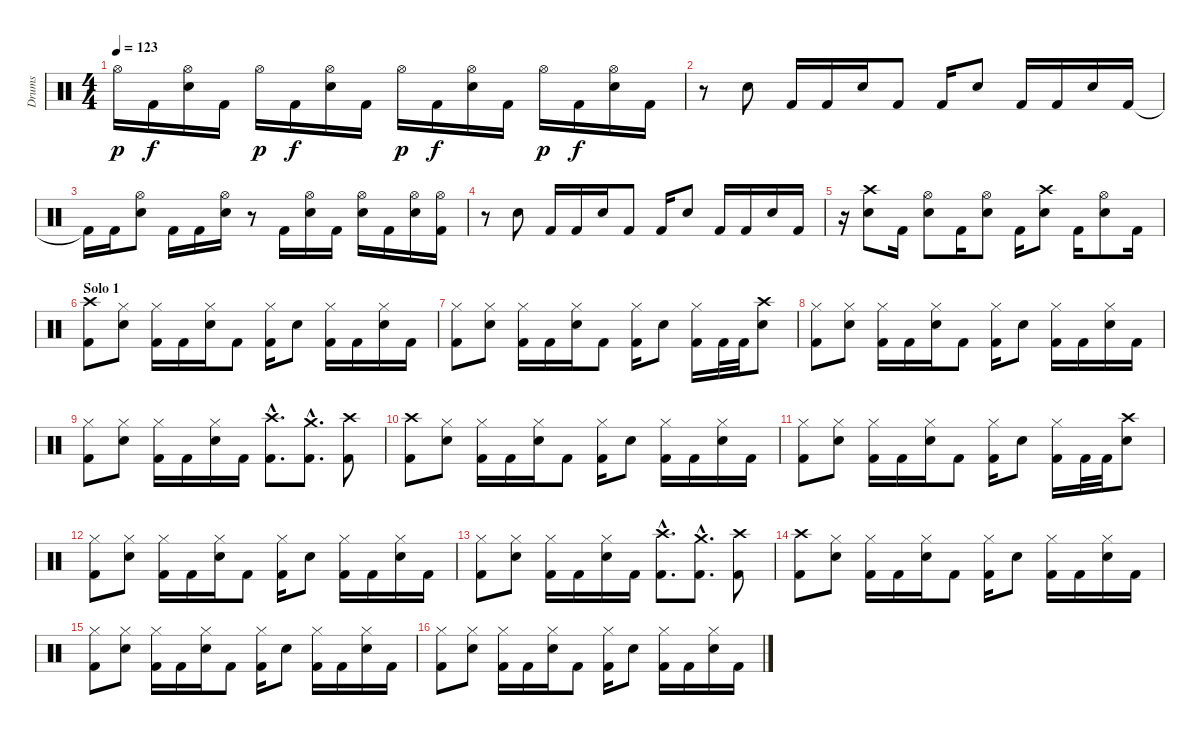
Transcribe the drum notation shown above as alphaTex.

\track ("Drums" "Drums") {instrument percussion}
\staff {score}
\articulation defaults
\ts (4 4)
\tempo 123
\clef neutral
\ks c "Hi-Hat (open)".16{dy p} "Kick (hit) 2".16{dy f}
("Hi-Hat (open)" "Snare (hit) 2").16 "Kick (hit) 2".16 "Hi-Hat (open)".16{dy p} "Kick (hit) 2".16{dy f} ("Hi-Hat (open)" "Snare (hit) 2").16 "Kick (hit) 2".16 "Hi-Hat (open)".16{dy p} "Kick (hit) 2".16{dy f} ("Hi-Hat (open)" "Snare (hit) 2").16 "Kick (hit) 2".16 "Hi-Hat (open)".16{dy p} "Kick (hit) 2".16{dy f} ("Hi-Hat (open)" "Snare (hit) 2").16 "Kick (hit) 2".16 |
r.8 "Snare (hit) 2".8 "Kick (hit) 2".16 "Kick (hit) 2".16 "Snare (hit) 2".16 "Kick (hit) 2".8 "Kick (hit) 2".16 "Snare (hit) 2".8 "Kick (hit) 2".16 "Kick (hit) 2".16 "Snare (hit) 2".16 "Kick (hit) 2".16 |
"Kick (hit) 2"{t}.16 "Kick (hit) 2".16 ("Hi-Hat (open)" "Snare (hit) 2").8 "Kick (hit) 2".16 "Kick (hit) 2".16 ("Hi-Hat (open)" "Snare (hit) 2").16 r.8 "Kick (hit) 2".16 ("Hi-Hat (open)" "Snare (hit) 2").16 "Kick (hit) 2".16 ("Hi-Hat (open)" "Snare (hit) 2").16 "Kick (hit) 2".16 ("Hi-Hat (open)" "Snare (hit) 2").16 ("Hi-Hat (open)" "Kick (hit) 2").16 |
r.8 "Snare (hit) 2".8 "Kick (hit) 2".16 "Kick (hit) 2".16 "Snare (hit) 2".16 "Kick (hit) 2".8 "Kick (hit) 2".16 "Snare (hit) 2".8 "Kick (hit) 2".16 "Kick (hit) 2".16 "Snare (hit) 2".16 "Kick (hit) 2".16 |
r.16 ("Crash high (hit)" "Snare (hit) 2").8 "Kick (hit) 2".16 ("Hi-Hat (open)" "Snare (hit) 2").8 "Kick (hit) 2".16 ("Hi-Hat (open)" "Snare (hit) 2").8 "Kick (hit) 2".16 ("Crash high (hit)" "Snare (hit) 2").8 "Kick (hit) 2".16 ("Hi-Hat (open)" "Snare (hit) 2").8 "Kick (hit) 2".16 |
\section ("" "Solo 1")
("Crash high (hit)" "Kick (hit) 2").8 ("Hi-Hat (closed)" "Snare (hit) 2").8 ("Hi-Hat (closed)" "Kick (hit) 2").16 "Kick (hit) 2".16 ("Hi-Hat (closed)" "Snare (hit) 2").16 "Kick (hit) 2".8 ("Hi-Hat (closed)" "Kick (hit) 2").16 "Snare (hit) 2".8 ("Hi-Hat (closed)" "Kick (hit) 2").16 "Kick (hit) 2".16 ("Hi-Hat (closed)" "Snare (hit) 2").16 "Kick (hit) 2".16 |
("Hi-Hat (closed)" "Kick (hit) 2").8 ("Hi-Hat (closed)" "Snare (hit) 2").8 ("Hi-Hat (closed)" "Kick (hit) 2").16 "Kick (hit) 2".16 ("Hi-Hat (closed)" "Snare (hit) 2").16 "Kick (hit) 2".8 ("Hi-Hat (closed)" "Kick (hit) 2").16 "Snare (hit) 2".8 ("Hi-Hat (closed)" "Kick (hit) 2").16 "Kick (hit) 2".32 "Kick (hit) 2".32 ("Crash high (hit)" "Snare (hit) 2").8 |
("Hi-Hat (closed)" "Kick (hit) 2").8 ("Hi-Hat (closed)" "Snare (hit) 2").8 ("Hi-Hat (closed)" "Kick (hit) 2").16 "Kick (hit) 2".16 ("Hi-Hat (closed)" "Snare (hit) 2").16 "Kick (hit) 2".8 ("Hi-Hat (closed)" "Kick (hit) 2").16 "Snare (hit) 2".8 ("Hi-Hat (closed)" "Kick (hit) 2").16 "Kick (hit) 2".16 ("Hi-Hat (closed)" "Snare (hit) 2").16 "Kick (hit) 2".16 |
("Hi-Hat (closed)" "Kick (hit) 2").8 ("Hi-Hat (closed)" "Snare (hit) 2").8 ("Hi-Hat (closed)" "Kick (hit) 2").16 "Kick (hit) 2".16 ("Hi-Hat (closed)" "Snare (hit) 2").16 "Kick (hit) 2".16 ("Crash high (hit)"{hac} "Kick (hit) 2"{hac}).8{d} ("Crash medium (hit)"{hac} "Kick (hit) 2"{hac}).8{d} ("Crash high (hit)" "Kick (hit) 2").8 |
("Crash high (hit)" "Kick (hit) 2").8 ("Hi-Hat (closed)" "Snare (hit) 2").8 ("Hi-Hat (closed)" "Kick (hit) 2").16 "Kick (hit) 2".16 ("Hi-Hat (closed)" "Snare (hit) 2").16 "Kick (hit) 2".8 ("Hi-Hat (closed)" "Kick (hit) 2").16 "Snare (hit) 2".8 ("Hi-Hat (closed)" "Kick (hit) 2").16 "Kick (hit) 2".16 ("Hi-Hat (closed)" "Snare (hit) 2").16 "Kick (hit) 2".16 |
("Hi-Hat (closed)" "Kick (hit) 2").8 ("Hi-Hat (closed)" "Snare (hit) 2").8 ("Hi-Hat (closed)" "Kick (hit) 2").16 "Kick (hit) 2".16 ("Hi-Hat (closed)" "Snare (hit) 2").16 "Kick (hit) 2".8 ("Hi-Hat (closed)" "Kick (hit) 2").16 "Snare (hit) 2".8 ("Hi-Hat (closed)" "Kick (hit) 2").16 "Kick (hit) 2".32 "Kick (hit) 2".32 ("Crash high (hit)" "Snare (hit) 2").8 |
("Hi-Hat (closed)" "Kick (hit) 2").8 ("Hi-Hat (closed)" "Snare (hit) 2").8 ("Hi-Hat (closed)" "Kick (hit) 2").16 "Kick (hit) 2".16 ("Hi-Hat (closed)" "Snare (hit) 2").16 "Kick (hit) 2".8 ("Hi-Hat (closed)" "Kick (hit) 2").16 "Snare (hit) 2".8 ("Hi-Hat (closed)" "Kick (hit) 2").16 "Kick (hit) 2".16 ("Hi-Hat (closed)" "Snare (hit) 2").16 "Kick (hit) 2".16 |
("Hi-Hat (closed)" "Kick (hit) 2").8 ("Hi-Hat (closed)" "Snare (hit) 2").8 ("Hi-Hat (closed)" "Kick (hit) 2").16 "Kick (hit) 2".16 ("Hi-Hat (closed)" "Snare (hit) 2").16 "Kick (hit) 2".16 ("Crash high (hit)"{hac} "Kick (hit) 2"{hac}).8{d} ("Crash medium (hit)"{hac} "Kick (hit) 2"{hac}).8{d} ("Crash high (hit)" "Kick (hit) 2").8 |
("Crash high (hit)" "Kick (hit) 2").8 ("Hi-Hat (closed)" "Snare (hit) 2").8 ("Hi-Hat (closed)" "Kick (hit) 2").16 "Kick (hit) 2".16 ("Hi-Hat (closed)" "Snare (hit) 2").16 "Kick (hit) 2".8 ("Hi-Hat (closed)" "Kick (hit) 2").16 "Snare (hit) 2".8 ("Hi-Hat (closed)" "Kick (hit) 2").16 "Kick (hit) 2".16 ("Hi-Hat (closed)" "Snare (hit) 2").16 "Kick (hit) 2".16 |
("Hi-Hat (closed)" "Kick (hit) 2").8 ("Hi-Hat (closed)" "Snare (hit) 2").8 ("Hi-Hat (closed)" "Kick (hit) 2").16 "Kick (hit) 2".16 ("Hi-Hat (closed)" "Snare (hit) 2").16 "Kick (hit) 2".8 ("Hi-Hat (closed)" "Kick (hit) 2").16 "Snare (hit) 2".8 ("Hi-Hat (closed)" "Kick (hit) 2").16 "Kick (hit) 2".16 ("Hi-Hat (closed)" "Snare (hit) 2").16 "Kick (hit) 2".16 |
("Hi-Hat (closed)" "Kick (hit) 2").8 ("Hi-Hat (closed)" "Snare (hit) 2").8 ("Hi-Hat (closed)" "Kick (hit) 2").16 "Kick (hit) 2".16 ("Hi-Hat (closed)" "Snare (hit) 2").16 "Kick (hit) 2".8 ("Hi-Hat (closed)" "Kick (hit) 2").16 "Snare (hit) 2".8 ("Hi-Hat (closed)" "Kick (hit) 2").16 "Kick (hit) 2".16 ("Hi-Hat (closed)" "Snare (hit) 2").16 "Kick (hit) 2".16
